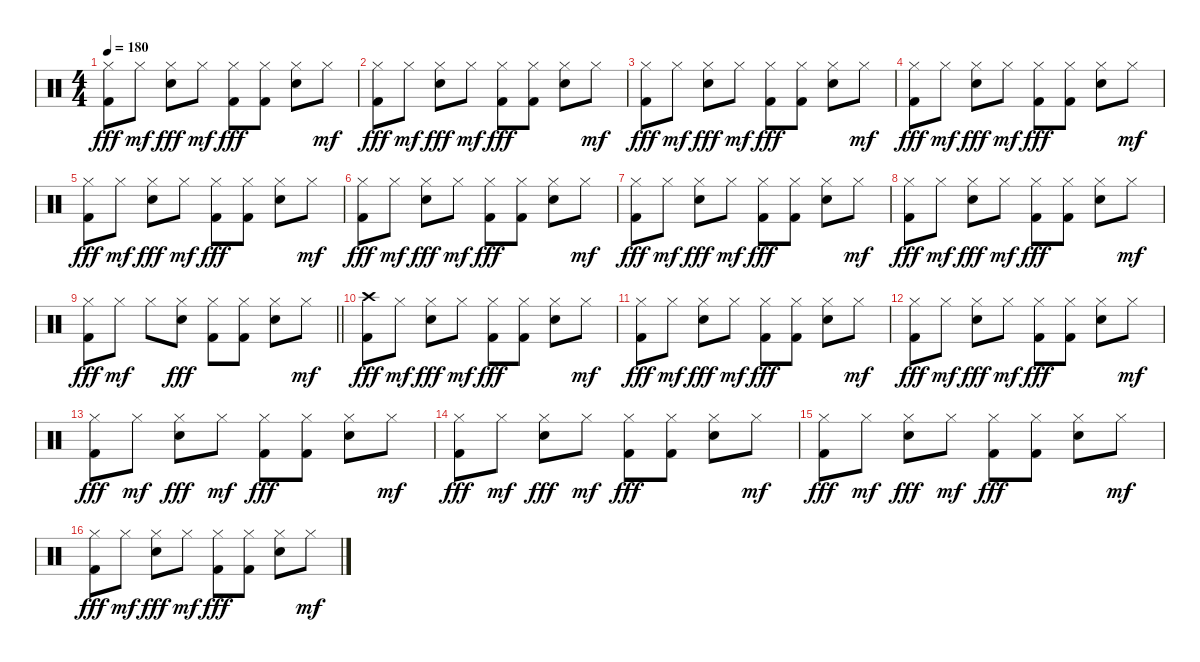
\track "" {instrument percussion}
\staff {score}
\articulation defaults
\ts (4 4)
\tempo 180
\clef neutral
\ks c
("Hi-Hat (closed)" "Kick (hit) 2").8{dy fff} "Hi-Hat (closed)".8{dy mf} ("Hi-Hat (closed)" "Snare (hit) 2").8{dy fff} "Hi-Hat (closed)".8{dy mf} ("Hi-Hat (closed)" "Kick (hit) 2").8{dy fff} ("Hi-Hat (closed)" "Kick (hit) 2").8 ("Hi-Hat (closed)" "Snare (hit) 2").8 "Hi-Hat (closed)".8{dy mf} |
("Hi-Hat (closed)" "Kick (hit) 2").8{dy fff} "Hi-Hat (closed)".8{dy mf} ("Hi-Hat (closed)" "Snare (hit) 2").8{dy fff} "Hi-Hat (closed)".8{dy mf} ("Hi-Hat (closed)" "Kick (hit) 2").8{dy fff} ("Hi-Hat (closed)" "Kick (hit) 2").8 ("Hi-Hat (closed)" "Snare (hit) 2").8 "Hi-Hat (closed)".8{dy mf} |
("Hi-Hat (closed)" "Kick (hit) 2").8{dy fff} "Hi-Hat (closed)".8{dy mf} ("Hi-Hat (closed)" "Snare (hit) 2").8{dy fff} "Hi-Hat (closed)".8{dy mf} ("Hi-Hat (closed)" "Kick (hit) 2").8{dy fff} ("Hi-Hat (closed)" "Kick (hit) 2").8 ("Hi-Hat (closed)" "Snare (hit) 2").8 "Hi-Hat (closed)".8{dy mf} |
("Hi-Hat (closed)" "Kick (hit) 2").8{dy fff} "Hi-Hat (closed)".8{dy mf} ("Hi-Hat (closed)" "Snare (hit) 2").8{dy fff} "Hi-Hat (closed)".8{dy mf} ("Hi-Hat (closed)" "Kick (hit) 2").8{dy fff} ("Hi-Hat (closed)" "Kick (hit) 2").8 ("Hi-Hat (closed)" "Snare (hit) 2").8 "Hi-Hat (closed)".8{dy mf} |
("Hi-Hat (closed)" "Kick (hit) 2").8{dy fff} "Hi-Hat (closed)".8{dy mf} ("Hi-Hat (closed)" "Snare (hit) 2").8{dy fff} "Hi-Hat (closed)".8{dy mf} ("Hi-Hat (closed)" "Kick (hit) 2").8{dy fff} ("Hi-Hat (closed)" "Kick (hit) 2").8 ("Hi-Hat (closed)" "Snare (hit) 2").8 "Hi-Hat (closed)".8{dy mf} |
("Hi-Hat (closed)" "Kick (hit) 2").8{dy fff} "Hi-Hat (closed)".8{dy mf} ("Hi-Hat (closed)" "Snare (hit) 2").8{dy fff} "Hi-Hat (closed)".8{dy mf} ("Hi-Hat (closed)" "Kick (hit) 2").8{dy fff} ("Hi-Hat (closed)" "Kick (hit) 2").8 ("Hi-Hat (closed)" "Snare (hit) 2").8 "Hi-Hat (closed)".8{dy mf} |
("Hi-Hat (closed)" "Kick (hit) 2").8{dy fff} "Hi-Hat (closed)".8{dy mf} ("Hi-Hat (closed)" "Snare (hit) 2").8{dy fff} "Hi-Hat (closed)".8{dy mf} ("Hi-Hat (closed)" "Kick (hit) 2").8{dy fff} ("Hi-Hat (closed)" "Kick (hit) 2").8 ("Hi-Hat (closed)" "Snare (hit) 2").8 "Hi-Hat (closed)".8{dy mf} |
("Hi-Hat (closed)" "Kick (hit) 2").8{dy fff} "Hi-Hat (closed)".8{dy mf} ("Hi-Hat (closed)" "Snare (hit) 2").8{dy fff} "Hi-Hat (closed)".8{dy mf} ("Hi-Hat (closed)" "Kick (hit) 2").8{dy fff} ("Hi-Hat (closed)" "Kick (hit) 2").8 ("Hi-Hat (closed)" "Snare (hit) 2").8 "Hi-Hat (closed)".8{dy mf} |
\barLineRight lightlight
("Hi-Hat (closed)" "Kick (hit) 2").8{dy fff} "Hi-Hat (closed)".8{dy mf} "Hi-Hat (closed)".8 ("Hi-Hat (closed)" "Snare (hit) 2").8{dy fff} ("Hi-Hat (closed)" "Kick (hit) 2").8 ("Hi-Hat (closed)" "Kick (hit) 2").8 ("Hi-Hat (closed)" "Snare (hit) 2").8 "Hi-Hat (closed)".8{dy mf} |
\section ("" "")
("Crash high (hit)" "Kick (hit) 2").8{dy fff} "Hi-Hat (closed)".8{dy mf} ("Hi-Hat (closed)" "Snare (hit) 2").8{dy fff} "Hi-Hat (closed)".8{dy mf} ("Hi-Hat (closed)" "Kick (hit) 2").8{dy fff} ("Hi-Hat (closed)" "Kick (hit) 2").8 ("Hi-Hat (closed)" "Snare (hit) 2").8 "Hi-Hat (closed)".8{dy mf} |
("Hi-Hat (closed)" "Kick (hit) 2").8{dy fff} "Hi-Hat (closed)".8{dy mf} ("Hi-Hat (closed)" "Snare (hit) 2").8{dy fff} "Hi-Hat (closed)".8{dy mf} ("Hi-Hat (closed)" "Kick (hit) 2").8{dy fff} ("Hi-Hat (closed)" "Kick (hit) 2").8 ("Hi-Hat (closed)" "Snare (hit) 2").8 "Hi-Hat (closed)".8{dy mf} |
("Hi-Hat (closed)" "Kick (hit) 2").8{dy fff} "Hi-Hat (closed)".8{dy mf} ("Hi-Hat (closed)" "Snare (hit) 2").8{dy fff} "Hi-Hat (closed)".8{dy mf} ("Hi-Hat (closed)" "Kick (hit) 2").8{dy fff} ("Hi-Hat (closed)" "Kick (hit) 2").8 ("Hi-Hat (closed)" "Snare (hit) 2").8 "Hi-Hat (closed)".8{dy mf} |
("Hi-Hat (closed)" "Kick (hit) 2").8{dy fff} "Hi-Hat (closed)".8{dy mf} ("Hi-Hat (closed)" "Snare (hit) 2").8{dy fff} "Hi-Hat (closed)".8{dy mf} ("Hi-Hat (closed)" "Kick (hit) 2").8{dy fff} ("Hi-Hat (closed)" "Kick (hit) 2").8 ("Hi-Hat (closed)" "Snare (hit) 2").8 "Hi-Hat (closed)".8{dy mf} |
("Hi-Hat (closed)" "Kick (hit) 2").8{dy fff} "Hi-Hat (closed)".8{dy mf} ("Hi-Hat (closed)" "Snare (hit) 2").8{dy fff} "Hi-Hat (closed)".8{dy mf} ("Hi-Hat (closed)" "Kick (hit) 2").8{dy fff} ("Hi-Hat (closed)" "Kick (hit) 2").8 ("Hi-Hat (closed)" "Snare (hit) 2").8 "Hi-Hat (closed)".8{dy mf} |
("Hi-Hat (closed)" "Kick (hit) 2").8{dy fff} "Hi-Hat (closed)".8{dy mf} ("Hi-Hat (closed)" "Snare (hit) 2").8{dy fff} "Hi-Hat (closed)".8{dy mf} ("Hi-Hat (closed)" "Kick (hit) 2").8{dy fff} ("Hi-Hat (closed)" "Kick (hit) 2").8 ("Hi-Hat (closed)" "Snare (hit) 2").8 "Hi-Hat (closed)".8{dy mf} |
("Hi-Hat (closed)" "Kick (hit) 2").8{dy fff} "Hi-Hat (closed)".8{dy mf} ("Hi-Hat (closed)" "Snare (hit) 2").8{dy fff} "Hi-Hat (closed)".8{dy mf} ("Hi-Hat (closed)" "Kick (hit) 2").8{dy fff} ("Hi-Hat (closed)" "Kick (hit) 2").8 ("Hi-Hat (closed)" "Snare (hit) 2").8 "Hi-Hat (closed)".8{dy mf}
